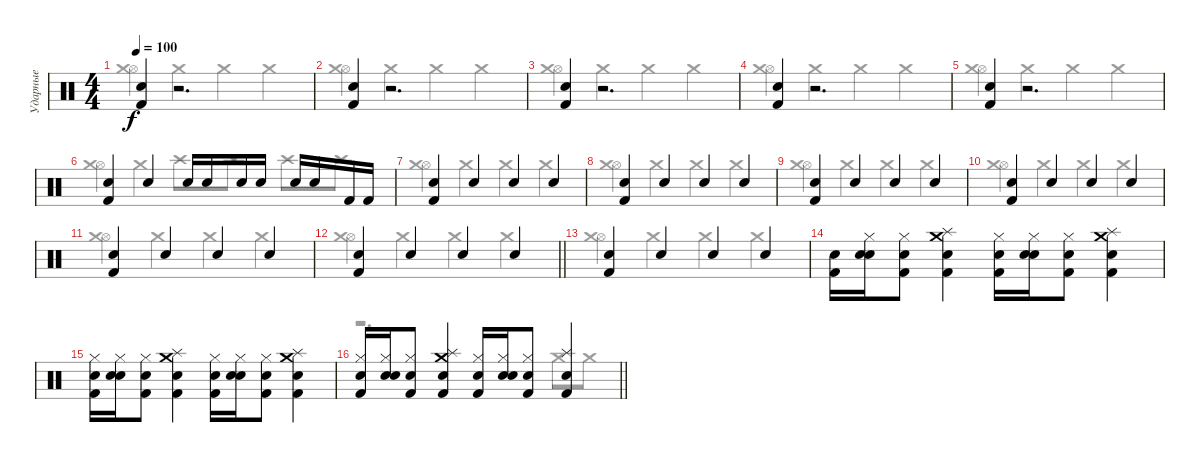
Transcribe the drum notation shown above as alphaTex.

\track ("Ударные" "Ударные") {instrument percussion}
\staff {score}
\articulation defaults
\voice
\ts (4 4)
\tempo 100
\clef neutral
\ks c
("Electric Snare (hit)" "Kick (hit) 2").4{dy f} r.2{d} |
("Electric Snare (hit)" "Kick (hit) 2").4 r.2{d} |
("Electric Snare (hit)" "Kick (hit) 2").4 r.2{d} |
("Electric Snare (hit)" "Kick (hit) 2").4 r.2{d} |
("Electric Snare (hit)" "Kick (hit) 2").4 r.2{d} |
("Electric Snare (hit)" "Kick (hit) 2").4 "Electric Snare (hit)".4 "Electric Snare (hit)".16 "Electric Snare (hit)".16 "Electric Snare (hit)".16 "Snare (hit) 2".16 "Snare (hit) 2".16 "Snare (hit) 2".16 "Kick (hit) 2".16 "Kick (hit) 2".16 |
("Electric Snare (hit)" "Kick (hit) 2").4 "Electric Snare (hit)".4 "Electric Snare (hit)".4 "Electric Snare (hit)".4 |
("Electric Snare (hit)" "Kick (hit) 2").4 "Electric Snare (hit)".4 "Electric Snare (hit)".4 "Electric Snare (hit)".4 |
("Electric Snare (hit)" "Kick (hit) 2").4 "Electric Snare (hit)".4 "Electric Snare (hit)".4 "Electric Snare (hit)".4 |
("Electric Snare (hit)" "Kick (hit) 2").4 "Electric Snare (hit)".4 "Electric Snare (hit)".4 "Electric Snare (hit)".4 |
("Electric Snare (hit)" "Kick (hit) 2").4 "Electric Snare (hit)".4 "Electric Snare (hit)".4 "Electric Snare (hit)".4 |
\barLineRight lightlight
("Electric Snare (hit)" "Kick (hit) 2").4 "Electric Snare (hit)".4 "Electric Snare (hit)".4 "Electric Snare (hit)".4 |
("Electric Snare (hit)" "Kick (hit) 2").4 "Electric Snare (hit)".4 "Electric Snare (hit)".4 "Electric Snare (hit)".4 |
("Electric Snare (hit)" "Kick (hit) 2").16 ("Hand Clap (hit)" "Snare (hit) 2" "Hi-Hat (closed)").16 ("Electric Snare (hit)" "Kick (hit) 2" "Hi-Hat (closed)").8 ("Splash (hit)" "Electric Snare (hit)" "Crash medium (hit)" "Kick (hit) 2").4 ("Hi-Hat (closed)" "Kick (hit) 2" "Electric Snare (hit)").16 ("Hi-Hat (closed)" "Snare (hit) 2" "Hand Clap (hit)").16 ("Hi-Hat (closed)" "Kick (hit) 2" "Electric Snare (hit)").8 ("Splash (hit)" "Electric Snare (hit)" "Crash medium (hit)" "Kick (hit) 2").4 |
("Electric Snare (hit)" "Kick (hit) 2" "Hi-Hat (closed)").16 ("Hand Clap (hit)" "Snare (hit) 2" "Hi-Hat (closed)").16 ("Electric Snare (hit)" "Kick (hit) 2" "Hi-Hat (closed)").8 ("Splash (hit)" "Electric Snare (hit)" "Crash medium (hit)" "Kick (hit) 2").4 ("Hi-Hat (closed)" "Kick (hit) 2" "Electric Snare (hit)").16 ("Hi-Hat (closed)" "Snare (hit) 2" "Hand Clap (hit)").16 ("Hi-Hat (closed)" "Kick (hit) 2" "Electric Snare (hit)").8 ("Splash (hit)" "Electric Snare (hit)" "Crash medium (hit)" "Kick (hit) 2").4 |
\barLineRight lightlight
("Electric Snare (hit)" "Kick (hit) 2" "Hi-Hat (closed)").16 ("Hand Clap (hit)" "Snare (hit) 2" "Hi-Hat (closed)").16 ("Electric Snare (hit)" "Kick (hit) 2" "Hi-Hat (closed)").8 ("Splash (hit)" "Electric Snare (hit)" "Crash medium (hit)" "Kick (hit) 2").4 ("Hi-Hat (closed)" "Kick (hit) 2" "Electric Snare (hit)").16 ("Hi-Hat (closed)" "Snare (hit) 2" "Hand Clap (hit)").16 ("Hi-Hat (closed)" "Kick (hit) 2" "Electric Snare (hit)").8 ("Splash (hit)" "Electric Snare (hit)" "Kick (hit) 2").4
\voice
\clef neutral
\ottava regular
\simile none
\ks c
("Hi-Hat (open)" "Crash medium (hit)").4{dy f} "Crash medium (hit)".4 "Crash medium (hit)".4 "Crash medium (hit)".4 |
("Hi-Hat (open)" "Crash medium (hit)").4 "Crash medium (hit)".4 "Crash medium (hit)".4 "Crash medium (hit)".4 |
("Hi-Hat (open)" "Crash medium (hit)").4 "Crash medium (hit)".4 "Crash medium (hit)".4 "Crash medium (hit)".4 |
("Hi-Hat (open)" "Crash medium (hit)").4 "Crash medium (hit)".4 "Crash medium (hit)".4 "Crash medium (hit)".4 |
("Hi-Hat (open)" "Crash medium (hit)").4 "Crash medium (hit)".4 "Crash medium (hit)".4 "Crash medium (hit)".4 |
("Hi-Hat (open)" "Crash medium (hit)").4 "Crash medium (hit)".4 "Crash high (hit)".8 "Crash high (hit)".8 "Crash high (hit)".8 "Crash high (hit)".8 |
("Hi-Hat (open)" "Crash medium (hit)").4 "Crash medium (hit)".4 "Crash medium (hit)".4 "Crash medium (hit)".4 |
("Hi-Hat (open)" "Crash medium (hit)").4 "Crash medium (hit)".4 "Crash medium (hit)".4 "Crash medium (hit)".4 |
("Hi-Hat (open)" "Crash medium (hit)").4 "Crash medium (hit)".4 "Crash medium (hit)".4 "Crash medium (hit)".4 |
("Hi-Hat (open)" "Crash medium (hit)").4 "Crash medium (hit)".4 "Crash medium (hit)".4 "Crash medium (hit)".4 |
("Hi-Hat (open)" "Crash medium (hit)").4 "Crash medium (hit)".4 "Crash medium (hit)".4 "Crash medium (hit)".4 |
\barLineRight lightlight
("Hi-Hat (open)" "Crash medium (hit)").4 "Crash medium (hit)".4 "Crash medium (hit)".4 "Crash medium (hit)".4 |
("Hi-Hat (open)" "Crash medium (hit)").4 "Crash medium (hit)".4 "Crash medium (hit)".4 "Crash medium (hit)".4 |
|
|
\barLineRight lightlight
r.2{d} "Crash medium (hit)".8 "Crash medium (hit)".8
